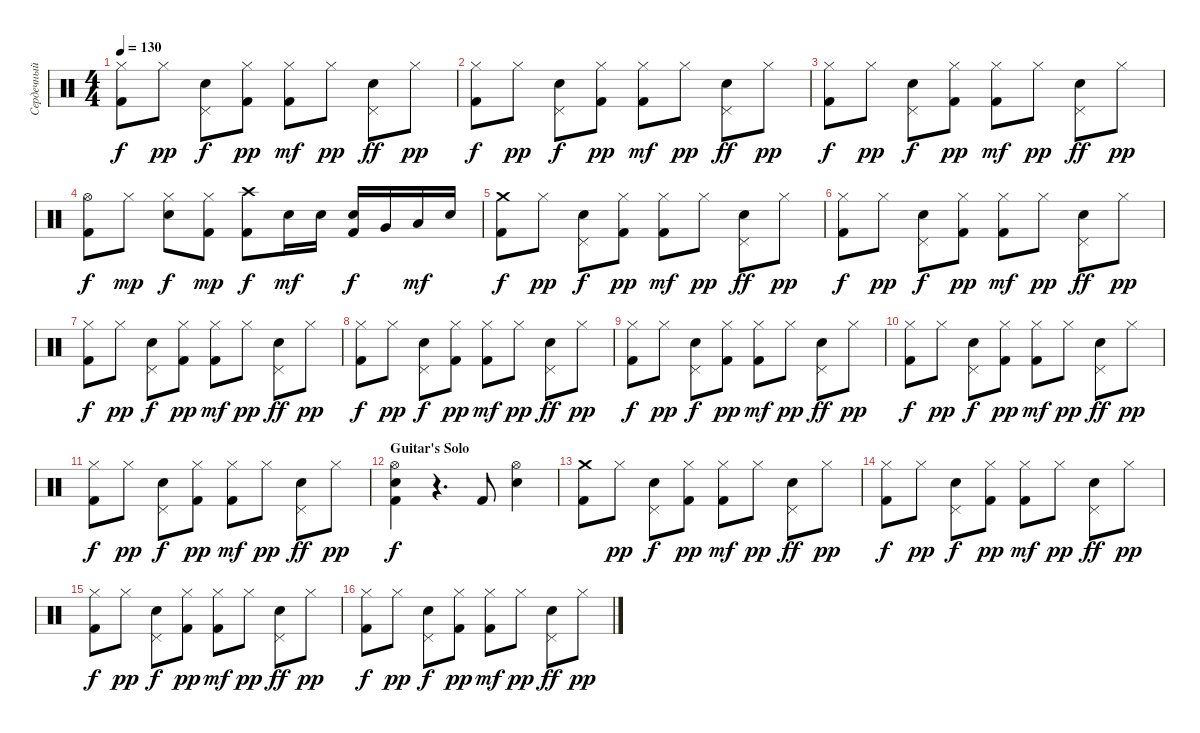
\track ("Сердечный (Ударные)" "Сердечный ") {instrument percussion}
\staff {score}
\articulation defaults
\ts (4 4)
\tempo 130
\clef neutral
\ks c
("Hi-Hat (closed)" "Kick (hit) 2").8{dy f} "Hi-Hat (closed)".8{dy pp} ("Pedal Hi-Hat (hit)" "Electric Snare (hit)").8{dy f} ("Hi-Hat (closed)" "Kick (hit) 2").8{dy pp} ("Hi-Hat (closed)" "Kick (hit) 2").8{dy mf} "Hi-Hat (closed)".8{dy pp} ("Pedal Hi-Hat (hit)" "Electric Snare (hit)").8{dy ff} "Hi-Hat (closed)".8{dy pp} |
("Hi-Hat (closed)" "Kick (hit) 2").8{dy f} "Hi-Hat (closed)".8{dy pp} ("Pedal Hi-Hat (hit)" "Electric Snare (hit)").8{dy f} ("Hi-Hat (closed)" "Kick (hit) 2").8{dy pp} ("Hi-Hat (closed)" "Kick (hit) 2").8{dy mf} "Hi-Hat (closed)".8{dy pp} ("Pedal Hi-Hat (hit)" "Electric Snare (hit)").8{dy ff} "Hi-Hat (closed)".8{dy pp} |
("Hi-Hat (closed)" "Kick (hit) 2").8{dy f} "Hi-Hat (closed)".8{dy pp} ("Pedal Hi-Hat (hit)" "Electric Snare (hit)").8{dy f} ("Hi-Hat (closed)" "Kick (hit) 2").8{dy pp} ("Hi-Hat (closed)" "Kick (hit) 2").8{dy mf} "Hi-Hat (closed)".8{dy pp} ("Pedal Hi-Hat (hit)" "Electric Snare (hit)").8{dy ff} "Hi-Hat (closed)".8{dy pp} |
("Hi-Hat (open)" "Kick (hit) 2").8{dy f} "Hi-Hat (closed)".8{dy mp} ("Hi-Hat (closed)" "Electric Snare (hit)").8{dy f} ("Hi-Hat (closed)" "Kick (hit) 2").8{dy mp} ("Crash high (hit)" "Kick (hit) 2").8{dy f} "Electric Snare (hit)".16{dy mf} "Electric Snare (hit)".16 ("Electric Snare (hit)" "Kick (hit) 2").16{dy f} "Very Low Tom (hit)".16 "Low Floor Tom (hit)".16{dy mf} "Electric Snare (hit)".16 |
("Kick (hit) 2" "Crash medium (hit)").8{dy f} "Hi-Hat (closed)".8{dy pp} ("Pedal Hi-Hat (hit)" "Electric Snare (hit)").8{dy f} ("Hi-Hat (closed)" "Kick (hit) 2").8{dy pp} ("Hi-Hat (closed)" "Kick (hit) 2").8{dy mf} "Hi-Hat (closed)".8{dy pp} ("Pedal Hi-Hat (hit)" "Electric Snare (hit)").8{dy ff} "Hi-Hat (closed)".8{dy pp} |
("Hi-Hat (closed)" "Kick (hit) 2").8{dy f} "Hi-Hat (closed)".8{dy pp} ("Pedal Hi-Hat (hit)" "Electric Snare (hit)").8{dy f} ("Hi-Hat (closed)" "Kick (hit) 2").8{dy pp} ("Hi-Hat (closed)" "Kick (hit) 2").8{dy mf} "Hi-Hat (closed)".8{dy pp} ("Pedal Hi-Hat (hit)" "Electric Snare (hit)").8{dy ff} "Hi-Hat (closed)".8{dy pp} |
("Hi-Hat (closed)" "Kick (hit) 2").8{dy f} "Hi-Hat (closed)".8{dy pp} ("Pedal Hi-Hat (hit)" "Electric Snare (hit)").8{dy f} ("Hi-Hat (closed)" "Kick (hit) 2").8{dy pp} ("Hi-Hat (closed)" "Kick (hit) 2").8{dy mf} "Hi-Hat (closed)".8{dy pp} ("Pedal Hi-Hat (hit)" "Electric Snare (hit)").8{dy ff} "Hi-Hat (closed)".8{dy pp} |
("Hi-Hat (closed)" "Kick (hit) 2").8{dy f} "Hi-Hat (closed)".8{dy pp} ("Pedal Hi-Hat (hit)" "Electric Snare (hit)").8{dy f} ("Hi-Hat (closed)" "Kick (hit) 2").8{dy pp} ("Hi-Hat (closed)" "Kick (hit) 2").8{dy mf} "Hi-Hat (closed)".8{dy pp} ("Pedal Hi-Hat (hit)" "Electric Snare (hit)").8{dy ff} "Hi-Hat (closed)".8{dy pp} |
("Hi-Hat (closed)" "Kick (hit) 2").8{dy f} "Hi-Hat (closed)".8{dy pp} ("Pedal Hi-Hat (hit)" "Electric Snare (hit)").8{dy f} ("Hi-Hat (closed)" "Kick (hit) 2").8{dy pp} ("Hi-Hat (closed)" "Kick (hit) 2").8{dy mf} "Hi-Hat (closed)".8{dy pp} ("Pedal Hi-Hat (hit)" "Electric Snare (hit)").8{dy ff} "Hi-Hat (closed)".8{dy pp} |
("Hi-Hat (closed)" "Kick (hit) 2").8{dy f} "Hi-Hat (closed)".8{dy pp} ("Pedal Hi-Hat (hit)" "Electric Snare (hit)").8{dy f} ("Hi-Hat (closed)" "Kick (hit) 2").8{dy pp} ("Hi-Hat (closed)" "Kick (hit) 2").8{dy mf} "Hi-Hat (closed)".8{dy pp} ("Pedal Hi-Hat (hit)" "Electric Snare (hit)").8{dy ff} "Hi-Hat (closed)".8{dy pp} |
("Hi-Hat (closed)" "Kick (hit) 2").8{dy f} "Hi-Hat (closed)".8{dy pp} ("Pedal Hi-Hat (hit)" "Electric Snare (hit)").8{dy f} ("Hi-Hat (closed)" "Kick (hit) 2").8{dy pp} ("Hi-Hat (closed)" "Kick (hit) 2").8{dy mf} "Hi-Hat (closed)".8{dy pp} ("Pedal Hi-Hat (hit)" "Electric Snare (hit)").8{dy ff} "Hi-Hat (closed)".8{dy pp} |
\section ("" "Guitar's Solo")
("Kick (hit) 2" "Electric Snare (hit)" "Hi-Hat (open)").4{dy f} r.4{d} "Kick (hit) 2".8 ("Hi-Hat (open)" "Electric Snare (hit)").4 |
("Kick (hit) 2" "Crash medium (hit)").8 "Hi-Hat (closed)".8{dy pp} ("Pedal Hi-Hat (hit)" "Electric Snare (hit)").8{dy f} ("Hi-Hat (closed)" "Kick (hit) 2").8{dy pp} ("Hi-Hat (closed)" "Kick (hit) 2").8{dy mf} "Hi-Hat (closed)".8{dy pp} ("Pedal Hi-Hat (hit)" "Electric Snare (hit)").8{dy ff} "Hi-Hat (closed)".8{dy pp} |
("Hi-Hat (closed)" "Kick (hit) 2").8{dy f} "Hi-Hat (closed)".8{dy pp} ("Pedal Hi-Hat (hit)" "Electric Snare (hit)").8{dy f} ("Hi-Hat (closed)" "Kick (hit) 2").8{dy pp} ("Hi-Hat (closed)" "Kick (hit) 2").8{dy mf} "Hi-Hat (closed)".8{dy pp} ("Pedal Hi-Hat (hit)" "Electric Snare (hit)").8{dy ff} "Hi-Hat (closed)".8{dy pp} |
("Hi-Hat (closed)" "Kick (hit) 2").8{dy f} "Hi-Hat (closed)".8{dy pp} ("Pedal Hi-Hat (hit)" "Electric Snare (hit)").8{dy f} ("Hi-Hat (closed)" "Kick (hit) 2").8{dy pp} ("Hi-Hat (closed)" "Kick (hit) 2").8{dy mf} "Hi-Hat (closed)".8{dy pp} ("Pedal Hi-Hat (hit)" "Electric Snare (hit)").8{dy ff} "Hi-Hat (closed)".8{dy pp} |
("Hi-Hat (closed)" "Kick (hit) 2").8{dy f} "Hi-Hat (closed)".8{dy pp} ("Pedal Hi-Hat (hit)" "Electric Snare (hit)").8{dy f} ("Hi-Hat (closed)" "Kick (hit) 2").8{dy pp} ("Hi-Hat (closed)" "Kick (hit) 2").8{dy mf} "Hi-Hat (closed)".8{dy pp} ("Pedal Hi-Hat (hit)" "Electric Snare (hit)").8{dy ff} "Hi-Hat (closed)".8{dy pp}
